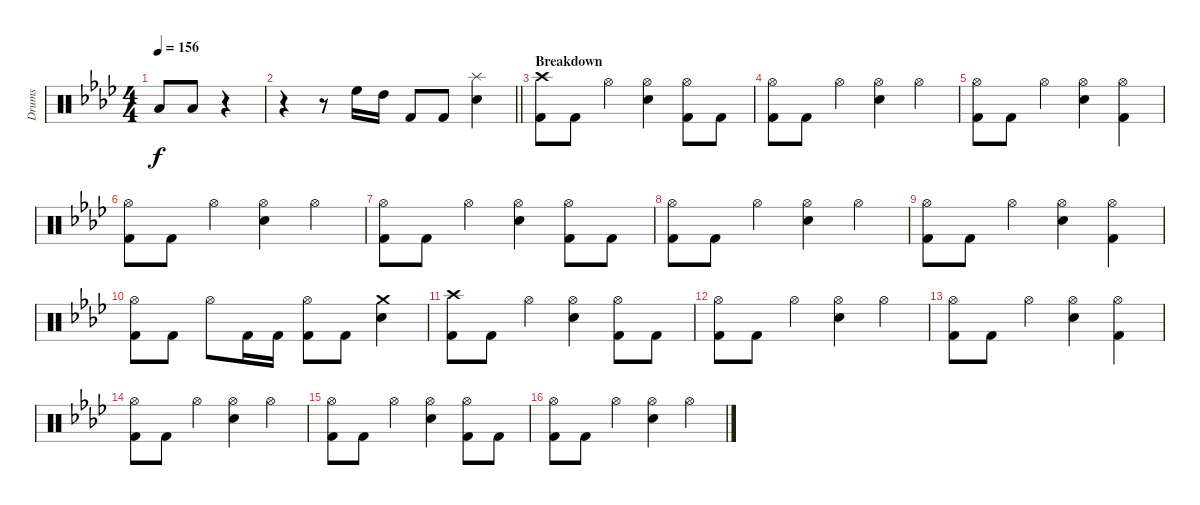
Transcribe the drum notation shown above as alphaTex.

\track ("Drums" "Drums") {instrument percussion}
\staff {score}
\articulation defaults
\ts (4 4)
\tempo 156
\clef neutral
\ks fminor "Low Tom (hit)".8{dy f} "Low Tom (hit)".8
r.4 |
\barLineRight lightlight
r.4 r.8 "High Floor Tom (hit)".16 "High Tom (hit)".16 "Kick (hit) 2".8 "Kick (hit) 2".8 ("Splash (hit)" "Electric Snare (hit)").4 |
\section ("" "Breakdown")
("Crash high (hit)" "Kick (hit) 2").8 "Kick (hit) 2".8 "Hi-Hat (open)".4 ("Electric Snare (hit)" "Hi-Hat (open)").4 ("Kick (hit) 2" "Hi-Hat (open)").8 "Kick (hit) 2".8 |
("Hi-Hat (open)" "Kick (hit) 2").8 "Kick (hit) 2".8 "Hi-Hat (open)".4 ("Hi-Hat (open)" "Electric Snare (hit)").4 "Hi-Hat (open)".4 |
("Kick (hit) 2" "Hi-Hat (open)").8 "Kick (hit) 2".8 "Hi-Hat (open)".4 ("Hi-Hat (open)" "Electric Snare (hit)").4 ("Hi-Hat (open)" "Kick (hit) 2").4 |
("Hi-Hat (open)" "Kick (hit) 2").8 "Kick (hit) 2".8 "Hi-Hat (open)".4 ("Hi-Hat (open)" "Electric Snare (hit)").4 "Hi-Hat (open)".4 |
("Hi-Hat (open)" "Kick (hit) 2").8 "Kick (hit) 2".8 "Hi-Hat (open)".4 ("Electric Snare (hit)" "Hi-Hat (open)").4 ("Kick (hit) 2" "Hi-Hat (open)").8 "Kick (hit) 2".8 |
("Hi-Hat (open)" "Kick (hit) 2").8 "Kick (hit) 2".8 "Hi-Hat (open)".4 ("Hi-Hat (open)" "Electric Snare (hit)").4 "Hi-Hat (open)".4 |
("Kick (hit) 2" "Hi-Hat (open)").8 "Kick (hit) 2".8 "Hi-Hat (open)".4 ("Hi-Hat (open)" "Electric Snare (hit)").4 ("Hi-Hat (open)" "Kick (hit) 2").4 |
("Kick (hit) 2" "Hi-Hat (open)").8 "Kick (hit) 2".8 "Hi-Hat (open)".8 "Kick (hit) 2".16 "Kick (hit) 2".16 ("Kick (hit) 2" "Hi-Hat (open)").8 "Kick (hit) 2".8 ("Crash medium (hit)" "Electric Snare (hit)").4 |
("Crash high (hit)" "Kick (hit) 2").8 "Kick (hit) 2".8 "Hi-Hat (open)".4 ("Electric Snare (hit)" "Hi-Hat (open)").4 ("Kick (hit) 2" "Hi-Hat (open)").8 "Kick (hit) 2".8 |
("Hi-Hat (open)" "Kick (hit) 2").8 "Kick (hit) 2".8 "Hi-Hat (open)".4 ("Hi-Hat (open)" "Electric Snare (hit)").4 "Hi-Hat (open)".4 |
("Kick (hit) 2" "Hi-Hat (open)").8 "Kick (hit) 2".8 "Hi-Hat (open)".4 ("Hi-Hat (open)" "Electric Snare (hit)").4 ("Hi-Hat (open)" "Kick (hit) 2").4 |
("Hi-Hat (open)" "Kick (hit) 2").8 "Kick (hit) 2".8 "Hi-Hat (open)".4 ("Hi-Hat (open)" "Electric Snare (hit)").4 "Hi-Hat (open)".4 |
("Hi-Hat (open)" "Kick (hit) 2").8 "Kick (hit) 2".8 "Hi-Hat (open)".4 ("Electric Snare (hit)" "Hi-Hat (open)").4 ("Kick (hit) 2" "Hi-Hat (open)").8 "Kick (hit) 2".8 |
("Hi-Hat (open)" "Kick (hit) 2").8 "Kick (hit) 2".8 "Hi-Hat (open)".4 ("Hi-Hat (open)" "Electric Snare (hit)").4 "Hi-Hat (open)".4
